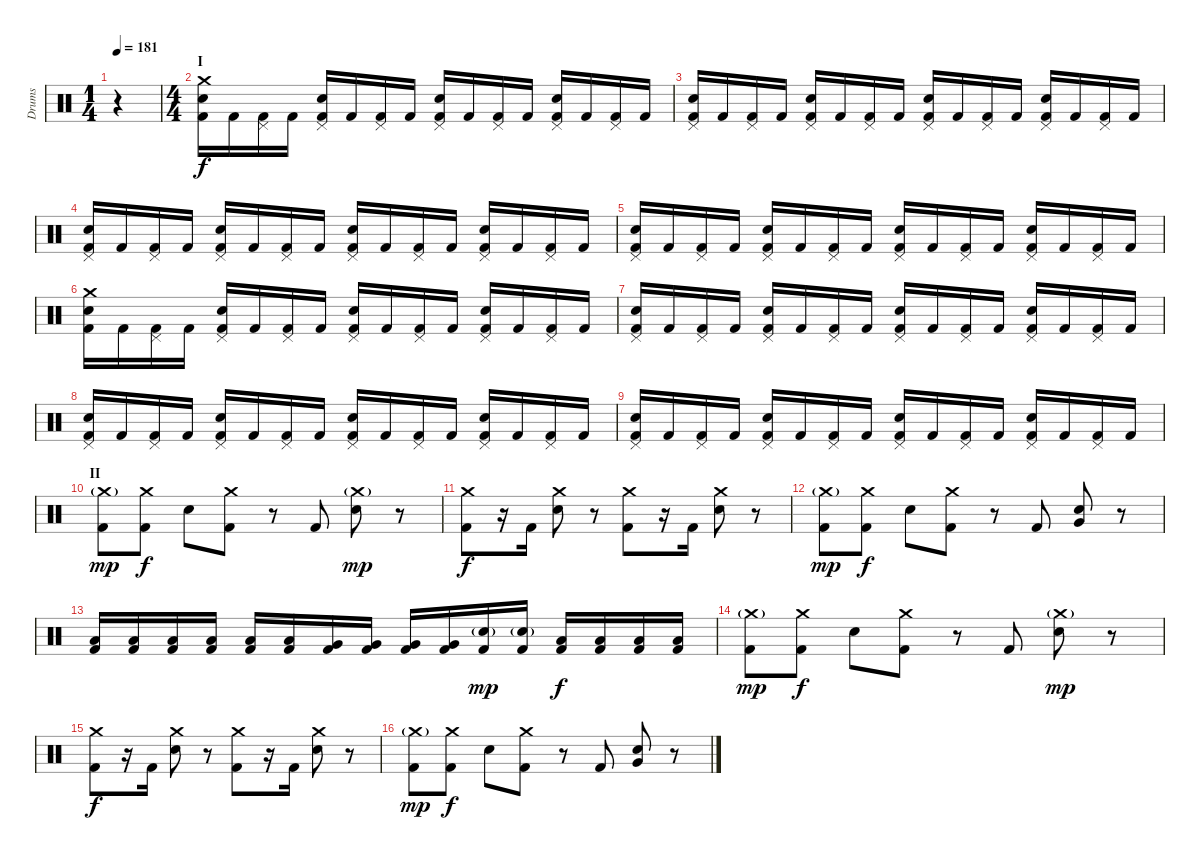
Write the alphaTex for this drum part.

\track ("Drums" "Drums") {instrument percussion}
\staff {score}
\articulation defaults
\ts (1 4)
\tempo 181
\clef neutral
\ks c
r.4{dy f} |
\ts (4 4)
\section ("" "I")
("Crash medium (hit)" "Electric Snare (hit)" "Kick (hit) 2").16 "Kick (hit) 2".16 ("Pedal Hi-Hat (hit)" "Kick (hit) 2").16 "Kick (hit) 2".16 ("Pedal Hi-Hat (hit)" "Electric Snare (hit)" "Kick (hit) 2").16 "Kick (hit) 2".16 ("Pedal Hi-Hat (hit)" "Kick (hit) 2").16 "Kick (hit) 2".16 ("Pedal Hi-Hat (hit)" "Electric Snare (hit)" "Kick (hit) 2").16 "Kick (hit) 2".16 ("Pedal Hi-Hat (hit)" "Kick (hit) 2").16 "Kick (hit) 2".16 ("Pedal Hi-Hat (hit)" "Electric Snare (hit)" "Kick (hit) 2").16 "Kick (hit) 2".16 ("Pedal Hi-Hat (hit)" "Kick (hit) 2").16 "Kick (hit) 2".16 |
("Pedal Hi-Hat (hit)" "Electric Snare (hit)" "Kick (hit) 2").16 "Kick (hit) 2".16 ("Pedal Hi-Hat (hit)" "Kick (hit) 2").16 "Kick (hit) 2".16 ("Pedal Hi-Hat (hit)" "Electric Snare (hit)" "Kick (hit) 2").16 "Kick (hit) 2".16 ("Pedal Hi-Hat (hit)" "Kick (hit) 2").16 "Kick (hit) 2".16 ("Pedal Hi-Hat (hit)" "Electric Snare (hit)" "Kick (hit) 2").16 "Kick (hit) 2".16 ("Pedal Hi-Hat (hit)" "Kick (hit) 2").16 "Kick (hit) 2".16 ("Pedal Hi-Hat (hit)" "Electric Snare (hit)" "Kick (hit) 2").16 "Kick (hit) 2".16 ("Pedal Hi-Hat (hit)" "Kick (hit) 2").16 "Kick (hit) 2".16 |
("Pedal Hi-Hat (hit)" "Electric Snare (hit)" "Kick (hit) 2").16 "Kick (hit) 2".16 ("Pedal Hi-Hat (hit)" "Kick (hit) 2").16 "Kick (hit) 2".16 ("Pedal Hi-Hat (hit)" "Electric Snare (hit)" "Kick (hit) 2").16 "Kick (hit) 2".16 ("Pedal Hi-Hat (hit)" "Kick (hit) 2").16 "Kick (hit) 2".16 ("Pedal Hi-Hat (hit)" "Electric Snare (hit)" "Kick (hit) 2").16 "Kick (hit) 2".16 ("Pedal Hi-Hat (hit)" "Kick (hit) 2").16 "Kick (hit) 2".16 ("Pedal Hi-Hat (hit)" "Electric Snare (hit)" "Kick (hit) 2").16 "Kick (hit) 2".16 ("Pedal Hi-Hat (hit)" "Kick (hit) 2").16 "Kick (hit) 2".16 |
("Pedal Hi-Hat (hit)" "Electric Snare (hit)" "Kick (hit) 2").16 "Kick (hit) 2".16 ("Pedal Hi-Hat (hit)" "Kick (hit) 2").16 "Kick (hit) 2".16 ("Pedal Hi-Hat (hit)" "Electric Snare (hit)" "Kick (hit) 2").16 "Kick (hit) 2".16 ("Pedal Hi-Hat (hit)" "Kick (hit) 2").16 "Kick (hit) 2".16 ("Pedal Hi-Hat (hit)" "Electric Snare (hit)" "Kick (hit) 2").16 "Kick (hit) 2".16 ("Pedal Hi-Hat (hit)" "Kick (hit) 2").16 "Kick (hit) 2".16 ("Pedal Hi-Hat (hit)" "Electric Snare (hit)" "Kick (hit) 2").16 "Kick (hit) 2".16 ("Pedal Hi-Hat (hit)" "Kick (hit) 2").16 "Kick (hit) 2".16 |
("Crash medium (hit)" "Electric Snare (hit)" "Kick (hit) 2").16 "Kick (hit) 2".16 ("Pedal Hi-Hat (hit)" "Kick (hit) 2").16 "Kick (hit) 2".16 ("Pedal Hi-Hat (hit)" "Electric Snare (hit)" "Kick (hit) 2").16 "Kick (hit) 2".16 ("Pedal Hi-Hat (hit)" "Kick (hit) 2").16 "Kick (hit) 2".16 ("Pedal Hi-Hat (hit)" "Electric Snare (hit)" "Kick (hit) 2").16 "Kick (hit) 2".16 ("Pedal Hi-Hat (hit)" "Kick (hit) 2").16 "Kick (hit) 2".16 ("Pedal Hi-Hat (hit)" "Electric Snare (hit)" "Kick (hit) 2").16 "Kick (hit) 2".16 ("Pedal Hi-Hat (hit)" "Kick (hit) 2").16 "Kick (hit) 2".16 |
("Pedal Hi-Hat (hit)" "Electric Snare (hit)" "Kick (hit) 2").16 "Kick (hit) 2".16 ("Pedal Hi-Hat (hit)" "Kick (hit) 2").16 "Kick (hit) 2".16 ("Pedal Hi-Hat (hit)" "Electric Snare (hit)" "Kick (hit) 2").16 "Kick (hit) 2".16 ("Pedal Hi-Hat (hit)" "Kick (hit) 2").16 "Kick (hit) 2".16 ("Pedal Hi-Hat (hit)" "Electric Snare (hit)" "Kick (hit) 2").16 "Kick (hit) 2".16 ("Pedal Hi-Hat (hit)" "Kick (hit) 2").16 "Kick (hit) 2".16 ("Pedal Hi-Hat (hit)" "Electric Snare (hit)" "Kick (hit) 2").16 "Kick (hit) 2".16 ("Pedal Hi-Hat (hit)" "Kick (hit) 2").16 "Kick (hit) 2".16 |
("Pedal Hi-Hat (hit)" "Electric Snare (hit)" "Kick (hit) 2").16 "Kick (hit) 2".16 ("Pedal Hi-Hat (hit)" "Kick (hit) 2").16 "Kick (hit) 2".16 ("Pedal Hi-Hat (hit)" "Electric Snare (hit)" "Kick (hit) 2").16 "Kick (hit) 2".16 ("Pedal Hi-Hat (hit)" "Kick (hit) 2").16 "Kick (hit) 2".16 ("Pedal Hi-Hat (hit)" "Electric Snare (hit)" "Kick (hit) 2").16 "Kick (hit) 2".16 ("Pedal Hi-Hat (hit)" "Kick (hit) 2").16 "Kick (hit) 2".16 ("Pedal Hi-Hat (hit)" "Electric Snare (hit)" "Kick (hit) 2").16 "Kick (hit) 2".16 ("Pedal Hi-Hat (hit)" "Kick (hit) 2").16 "Kick (hit) 2".16 |
("Pedal Hi-Hat (hit)" "Electric Snare (hit)" "Kick (hit) 2").16 "Kick (hit) 2".16 ("Pedal Hi-Hat (hit)" "Kick (hit) 2").16 "Kick (hit) 2".16 ("Pedal Hi-Hat (hit)" "Electric Snare (hit)" "Kick (hit) 2").16 "Kick (hit) 2".16 ("Pedal Hi-Hat (hit)" "Kick (hit) 2").16 "Kick (hit) 2".16 ("Pedal Hi-Hat (hit)" "Electric Snare (hit)" "Kick (hit) 2").16 "Kick (hit) 2".16 ("Pedal Hi-Hat (hit)" "Kick (hit) 2").16 "Kick (hit) 2".16 ("Pedal Hi-Hat (hit)" "Electric Snare (hit)" "Kick (hit) 2").16 "Kick (hit) 2".16 ("Pedal Hi-Hat (hit)" "Kick (hit) 2").16 "Kick (hit) 2".16 |
\section ("" "II")
("Crash medium (hit)"{g} "Kick (hit) 2").8{dy mp} ("Crash medium (hit)" "Kick (hit) 2").8{dy f} "Electric Snare (hit)".8 ("Crash medium (hit)" "Kick (hit) 2").8 r.8 "Kick (hit) 2".8 ("Crash medium (hit)"{g} "Electric Snare (hit)").8{dy mp} r.8 |
("Crash medium (hit)" "Kick (hit) 2").8{dy f} r.16 "Kick (hit) 2".16 ("Crash medium (hit)" "Electric Snare (hit)").8 r.8 ("Crash medium (hit)" "Kick (hit) 2").8 r.16 "Kick (hit) 2".16 ("Crash medium (hit)" "Electric Snare (hit)").8 r.8 |
("Crash medium (hit)"{g} "Kick (hit) 2").8{dy mp} ("Crash medium (hit)" "Kick (hit) 2").8{dy f} "Electric Snare (hit)".8 ("Crash medium (hit)" "Kick (hit) 2").8 r.8 "Kick (hit) 2".8 ("Very Low Tom (hit)" "Electric Snare (hit)").8 r.8 |
("Low Tom (hit)" "Kick (hit) 2").16 ("Low Tom (hit)" "Kick (hit) 2").16 ("Low Tom (hit)" "Kick (hit) 2").16 ("Low Tom (hit)" "Kick (hit) 2").16 ("Low Tom (hit)" "Kick (hit) 2").16 ("Low Tom (hit)" "Kick (hit) 2").16 ("Very Low Tom (hit)" "Kick (hit) 2").16 ("Very Low Tom (hit)" "Kick (hit) 2").16 ("Very Low Tom (hit)" "Kick (hit) 2").16 ("Very Low Tom (hit)" "Kick (hit) 2").16 ("Electric Snare (hit)"{g} "Kick (hit) 2").16{dy mp} ("Electric Snare (hit)"{g} "Kick (hit) 2").16 ("Low Floor Tom (hit)" "Kick (hit) 2").16{dy f} ("Low Floor Tom (hit)" "Kick (hit) 2").16 ("Low Floor Tom (hit)" "Kick (hit) 2").16 ("Low Floor Tom (hit)" "Kick (hit) 2").16 |
("Crash medium (hit)"{g} "Kick (hit) 2").8{dy mp} ("Crash medium (hit)" "Kick (hit) 2").8{dy f} "Electric Snare (hit)".8 ("Crash medium (hit)" "Kick (hit) 2").8 r.8 "Kick (hit) 2".8 ("Crash medium (hit)"{g} "Electric Snare (hit)").8{dy mp} r.8 |
("Crash medium (hit)" "Kick (hit) 2").8{dy f} r.16 "Kick (hit) 2".16 ("Crash medium (hit)" "Electric Snare (hit)").8 r.8 ("Crash medium (hit)" "Kick (hit) 2").8 r.16 "Kick (hit) 2".16 ("Crash medium (hit)" "Electric Snare (hit)").8 r.8 |
("Crash medium (hit)"{g} "Kick (hit) 2").8{dy mp} ("Crash medium (hit)" "Kick (hit) 2").8{dy f} "Electric Snare (hit)".8 ("Crash medium (hit)" "Kick (hit) 2").8 r.8 "Kick (hit) 2".8 ("Very Low Tom (hit)" "Electric Snare (hit)").8 r.8
